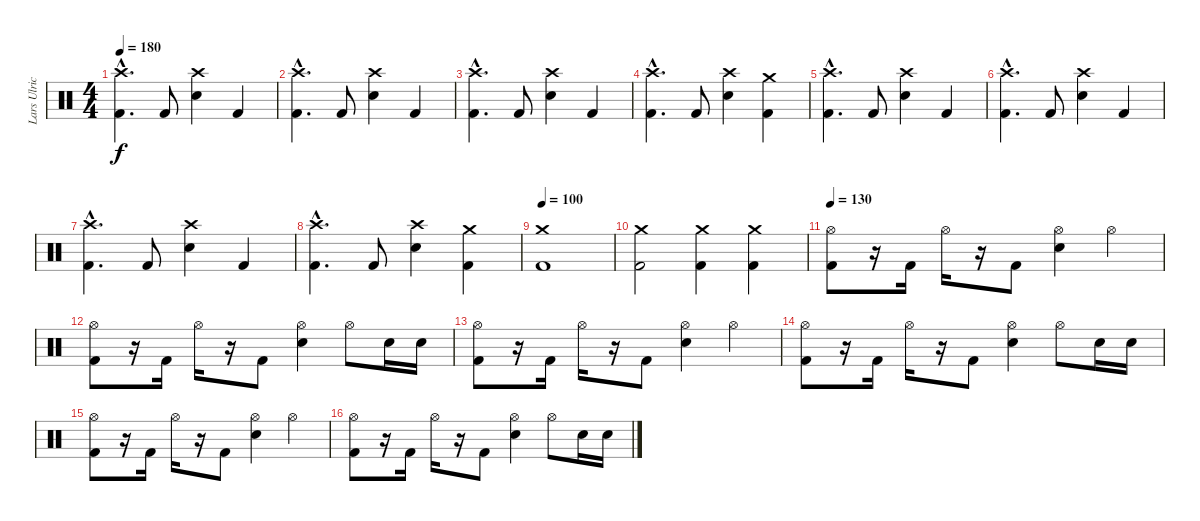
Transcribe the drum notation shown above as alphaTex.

\track ("Lars Ulrich" "Lars Ulric") {instrument percussion}
\staff {score}
\articulation defaults
\ts (4 4)
\tempo 180
\clef neutral
\ks c
("Crash high (hit)"{hac} "Kick (hit) 2"{hac}).4{d dy f} "Kick (hit) 2".8 ("Crash high (hit)" "Electric Snare (hit)").4 "Kick (hit) 2".4 |
("Crash high (hit)"{hac} "Kick (hit) 2"{hac}).4{d} "Kick (hit) 2".8 ("Crash high (hit)" "Electric Snare (hit)").4 "Kick (hit) 2".4 |
("Crash high (hit)"{hac} "Kick (hit) 2"{hac}).4{d} "Kick (hit) 2".8 ("Crash high (hit)" "Electric Snare (hit)").4 "Kick (hit) 2".4 |
("Crash high (hit)"{hac} "Kick (hit) 2"{hac}).4{d} "Kick (hit) 2".8 ("Crash high (hit)" "Electric Snare (hit)").4 ("Crash medium (hit)" "Kick (hit) 2").4 |
("Crash high (hit)"{hac} "Kick (hit) 2"{hac}).4{d} "Kick (hit) 2".8 ("Crash high (hit)" "Electric Snare (hit)").4 "Kick (hit) 2".4 |
("Crash high (hit)"{hac} "Kick (hit) 2"{hac}).4{d} "Kick (hit) 2".8 ("Crash high (hit)" "Electric Snare (hit)").4 "Kick (hit) 2".4 |
("Crash high (hit)"{hac} "Kick (hit) 2"{hac}).4{d} "Kick (hit) 2".8 ("Crash high (hit)" "Electric Snare (hit)").4 "Kick (hit) 2".4 |
("Crash high (hit)"{hac} "Kick (hit) 2"{hac}).4{d} "Kick (hit) 2".8 ("Crash high (hit)" "Electric Snare (hit)").4 ("Crash medium (hit)" "Kick (hit) 2").4 |
\tempo 100
("Crash medium (hit)" "Kick (hit) 2").1 |
("Crash medium (hit)" "Kick (hit) 2").2 ("Crash medium (hit)" "Kick (hit) 2").4 ("Crash medium (hit)" "Kick (hit) 2").4 |
\tempo 130
("Hi-Hat (open)" "Kick (hit) 2").8 r.16 "Kick (hit) 2".16 "Hi-Hat (open)".16 r.16 "Kick (hit) 2".8 ("Hi-Hat (open)" "Electric Snare (hit)").4 "Hi-Hat (open)".4 |
("Hi-Hat (open)" "Kick (hit) 2").8 r.16 "Kick (hit) 2".16 "Hi-Hat (open)".16 r.16 "Kick (hit) 2".8 ("Hi-Hat (open)" "Electric Snare (hit)").4 "Hi-Hat (open)".8 "Electric Snare (hit)".16 "Electric Snare (hit)".16 |
("Hi-Hat (open)" "Kick (hit) 2").8 r.16 "Kick (hit) 2".16 "Hi-Hat (open)".16 r.16 "Kick (hit) 2".8 ("Hi-Hat (open)" "Electric Snare (hit)").4 "Hi-Hat (open)".4 |
("Hi-Hat (open)" "Kick (hit) 2").8 r.16 "Kick (hit) 2".16 "Hi-Hat (open)".16 r.16 "Kick (hit) 2".8 ("Hi-Hat (open)" "Electric Snare (hit)").4 "Hi-Hat (open)".8 "Electric Snare (hit)".16 "Electric Snare (hit)".16 |
("Hi-Hat (open)" "Kick (hit) 2").8 r.16 "Kick (hit) 2".16 "Hi-Hat (open)".16 r.16 "Kick (hit) 2".8 ("Hi-Hat (open)" "Electric Snare (hit)").4 "Hi-Hat (open)".4 |
("Hi-Hat (open)" "Kick (hit) 2").8 r.16 "Kick (hit) 2".16 "Hi-Hat (open)".16 r.16 "Kick (hit) 2".8 ("Hi-Hat (open)" "Electric Snare (hit)").4 "Hi-Hat (open)".8 "Electric Snare (hit)".16 "Electric Snare (hit)".16
